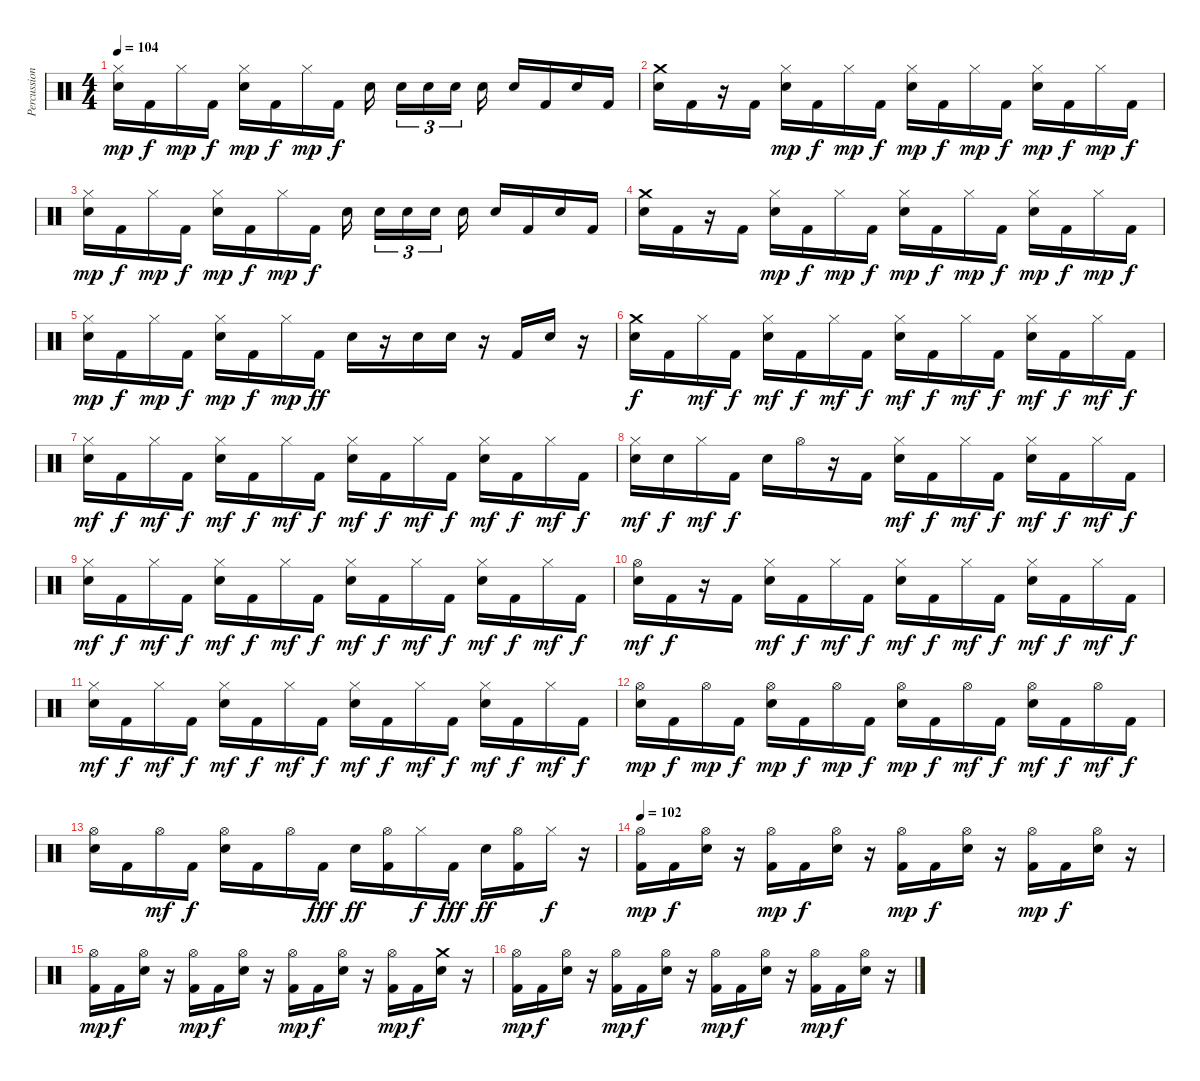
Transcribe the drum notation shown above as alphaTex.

\track ("Percussion" "Percussion") {instrument percussion}
\staff {score}
\articulation defaults
\ts (4 4)
\tempo 104
\clef neutral
\ks c
("Electric Snare (hit)" "Hi-Hat (closed)").16{dy mp} "Kick (hit) 2".16{dy f} "Hi-Hat (closed)".16{dy mp} "Kick (hit) 2".16{dy f} ("Electric Snare (hit)" "Hi-Hat (closed)").16{dy mp} "Kick (hit) 2".16{dy f} "Hi-Hat (closed)".16{dy mp} "Kick (hit) 2".16{dy f} "Electric Snare (hit)".16 "Electric Snare (hit)".16{tu (3 2)} "Electric Snare (hit)".16{tu (3 2)} "Electric Snare (hit)".16{tu (3 2)} "Electric Snare (hit)".16 "Electric Snare (hit)".16 "Kick (hit) 2".16 "Electric Snare (hit)".16 "Kick (hit) 2".16 |
("Electric Snare (hit)" "Crash medium (hit)").16 "Kick (hit) 2".16 r.16 "Kick (hit) 2".16 ("Electric Snare (hit)" "Hi-Hat (closed)").16{dy mp} "Kick (hit) 2".16{dy f} "Hi-Hat (closed)".16{dy mp} "Kick (hit) 2".16{dy f} ("Electric Snare (hit)" "Hi-Hat (closed)").16{dy mp} "Kick (hit) 2".16{dy f} "Hi-Hat (closed)".16{dy mp} "Kick (hit) 2".16{dy f} ("Electric Snare (hit)" "Hi-Hat (closed)").16{dy mp} "Kick (hit) 2".16{dy f} "Hi-Hat (closed)".16{dy mp} "Kick (hit) 2".16{dy f} |
("Electric Snare (hit)" "Hi-Hat (closed)").16{dy mp} "Kick (hit) 2".16{dy f} "Hi-Hat (closed)".16{dy mp} "Kick (hit) 2".16{dy f} ("Electric Snare (hit)" "Hi-Hat (closed)").16{dy mp} "Kick (hit) 2".16{dy f} "Hi-Hat (closed)".16{dy mp} "Kick (hit) 2".16{dy f} "Electric Snare (hit)".16 "Electric Snare (hit)".16{tu (3 2)} "Electric Snare (hit)".16{tu (3 2)} "Electric Snare (hit)".16{tu (3 2)} "Electric Snare (hit)".16 "Electric Snare (hit)".16 "Kick (hit) 2".16 "Electric Snare (hit)".16 "Kick (hit) 2".16 |
("Electric Snare (hit)" "Crash medium (hit)").16 "Kick (hit) 2".16 r.16 "Kick (hit) 2".16 ("Electric Snare (hit)" "Hi-Hat (closed)").16{dy mp} "Kick (hit) 2".16{dy f} "Hi-Hat (closed)".16{dy mp} "Kick (hit) 2".16{dy f} ("Electric Snare (hit)" "Hi-Hat (closed)").16{dy mp} "Kick (hit) 2".16{dy f} "Hi-Hat (closed)".16{dy mp} "Kick (hit) 2".16{dy f} ("Electric Snare (hit)" "Hi-Hat (closed)").16{dy mp} "Kick (hit) 2".16{dy f} "Hi-Hat (closed)".16{dy mp} "Kick (hit) 2".16{dy f} |
("Electric Snare (hit)" "Hi-Hat (closed)").16{dy mp} "Kick (hit) 2".16{dy f} "Hi-Hat (closed)".16{dy mp} "Kick (hit) 2".16{dy f} ("Electric Snare (hit)" "Hi-Hat (closed)").16{dy mp} "Kick (hit) 2".16{dy f} "Hi-Hat (closed)".16{dy mp} "Kick (hit) 2".16{dy ff} "Electric Snare (hit)".16 r.16 "Electric Snare (hit)".16 "Electric Snare (hit)".16 r.16 "Kick (hit) 2".16 "Electric Snare (hit)".16 r.16 |
("Electric Snare (hit)" "Crash medium (hit)").16{dy f} "Kick (hit) 2".16 "Hi-Hat (closed)".16{dy mf} "Kick (hit) 2".16{dy f} ("Electric Snare (hit)" "Hi-Hat (closed)").16{dy mf} "Kick (hit) 2".16{dy f} "Hi-Hat (closed)".16{dy mf} "Kick (hit) 2".16{dy f} ("Electric Snare (hit)" "Hi-Hat (closed)").16{dy mf} "Kick (hit) 2".16{dy f} "Hi-Hat (closed)".16{dy mf} "Kick (hit) 2".16{dy f} ("Electric Snare (hit)" "Hi-Hat (closed)").16{dy mf} "Kick (hit) 2".16{dy f} "Hi-Hat (closed)".16{dy mf} "Kick (hit) 2".16{dy f} |
("Electric Snare (hit)" "Hi-Hat (closed)").16{dy mf} "Kick (hit) 2".16{dy f} "Hi-Hat (closed)".16{dy mf} "Kick (hit) 2".16{dy f} ("Electric Snare (hit)" "Hi-Hat (closed)").16{dy mf} "Kick (hit) 2".16{dy f} "Hi-Hat (closed)".16{dy mf} "Kick (hit) 2".16{dy f} ("Electric Snare (hit)" "Hi-Hat (closed)").16{dy mf} "Kick (hit) 2".16{dy f} "Hi-Hat (closed)".16{dy mf} "Kick (hit) 2".16{dy f} ("Electric Snare (hit)" "Hi-Hat (closed)").16{dy mf} "Kick (hit) 2".16{dy f} "Hi-Hat (closed)".16{dy mf} "Kick (hit) 2".16{dy f} |
("Electric Snare (hit)" "Hi-Hat (closed)").16{dy mf} "Electric Snare (hit)".16{dy f} "Hi-Hat (closed)".16{dy mf} "Kick (hit) 2".16{dy f} "Electric Snare (hit)".16 "Hi-Hat (open)".16 r.16 "Kick (hit) 2".16 ("Electric Snare (hit)" "Hi-Hat (closed)").16{dy mf} "Kick (hit) 2".16{dy f} "Hi-Hat (closed)".16{dy mf} "Kick (hit) 2".16{dy f} ("Electric Snare (hit)" "Hi-Hat (closed)").16{dy mf} "Kick (hit) 2".16{dy f} "Hi-Hat (closed)".16{dy mf} "Kick (hit) 2".16{dy f} |
("Electric Snare (hit)" "Hi-Hat (closed)").16{dy mf} "Kick (hit) 2".16{dy f} "Hi-Hat (closed)".16{dy mf} "Kick (hit) 2".16{dy f} ("Electric Snare (hit)" "Hi-Hat (closed)").16{dy mf} "Kick (hit) 2".16{dy f} "Hi-Hat (closed)".16{dy mf} "Kick (hit) 2".16{dy f} ("Electric Snare (hit)" "Hi-Hat (closed)").16{dy mf} "Kick (hit) 2".16{dy f} "Hi-Hat (closed)".16{dy mf} "Kick (hit) 2".16{dy f} ("Electric Snare (hit)" "Hi-Hat (closed)").16{dy mf} "Kick (hit) 2".16{dy f} "Hi-Hat (closed)".16{dy mf} "Kick (hit) 2".16{dy f} |
("Electric Snare (hit)" "Hi-Hat (open)").16{dy mf} "Kick (hit) 2".16{dy f} r.16 "Kick (hit) 2".16 ("Electric Snare (hit)" "Hi-Hat (closed)").16{dy mf} "Kick (hit) 2".16{dy f} "Hi-Hat (closed)".16{dy mf} "Kick (hit) 2".16{dy f} ("Electric Snare (hit)" "Hi-Hat (closed)").16{dy mf} "Kick (hit) 2".16{dy f} "Hi-Hat (closed)".16{dy mf} "Kick (hit) 2".16{dy f} ("Electric Snare (hit)" "Hi-Hat (closed)").16{dy mf} "Kick (hit) 2".16{dy f} "Hi-Hat (closed)".16{dy mf} "Kick (hit) 2".16{dy f} |
("Electric Snare (hit)" "Hi-Hat (closed)").16{dy mf} "Kick (hit) 2".16{dy f} "Hi-Hat (closed)".16{dy mf} "Kick (hit) 2".16{dy f} ("Electric Snare (hit)" "Hi-Hat (closed)").16{dy mf} "Kick (hit) 2".16{dy f} "Hi-Hat (closed)".16{dy mf} "Kick (hit) 2".16{dy f} ("Electric Snare (hit)" "Hi-Hat (closed)").16{dy mf} "Kick (hit) 2".16{dy f} "Hi-Hat (closed)".16{dy mf} "Kick (hit) 2".16{dy f} ("Electric Snare (hit)" "Hi-Hat (closed)").16{dy mf} "Kick (hit) 2".16{dy f} "Hi-Hat (closed)".16{dy mf} "Kick (hit) 2".16{dy f} |
("Electric Snare (hit)" "Hi-Hat (open)").16{dy mp} "Kick (hit) 2".16{dy f} "Hi-Hat (open)".16{dy mp} "Kick (hit) 2".16{dy f} ("Electric Snare (hit)" "Hi-Hat (open)").16{dy mp} "Kick (hit) 2".16{dy f} "Hi-Hat (open)".16{dy mp} "Kick (hit) 2".16{dy f} ("Electric Snare (hit)" "Hi-Hat (open)").16{dy mp} "Kick (hit) 2".16{dy f} "Hi-Hat (open)".16{dy mf} "Kick (hit) 2".16{dy f} ("Electric Snare (hit)" "Hi-Hat (open)").16{dy mf} "Kick (hit) 2".16{dy f} "Hi-Hat (open)".16{dy mf} "Kick (hit) 2".16{dy f} |
("Electric Snare (hit)" "Hi-Hat (open)").16 "Kick (hit) 2".16 "Hi-Hat (open)".16{dy mf} "Kick (hit) 2".16{dy f} ("Electric Snare (hit)" "Hi-Hat (open)").16 "Kick (hit) 2".16 "Hi-Hat (open)".16 "Kick (hit) 2".16{dy fff} "Electric Snare (hit)".16{dy ff} ("Kick (hit) 2" "Hi-Hat (open)").16 "Hi-Hat (closed)".16{dy f} "Kick (hit) 2".16{dy fff} "Electric Snare (hit)".16{dy ff} ("Kick (hit) 2" "Hi-Hat (open)").16 "Hi-Hat (closed)".16{dy f} r.16 |
\tempo 102
("Kick (hit) 2" "Hi-Hat (open)").16{dy mp} "Kick (hit) 2".16{dy f} ("Electric Snare (hit)" "Hi-Hat (open)").16 r.16 ("Kick (hit) 2" "Hi-Hat (open)").16{dy mp} "Kick (hit) 2".16{dy f} ("Electric Snare (hit)" "Hi-Hat (open)").16 r.16 ("Kick (hit) 2" "Hi-Hat (open)").16{dy mp} "Kick (hit) 2".16{dy f} ("Electric Snare (hit)" "Hi-Hat (open)").16 r.16 ("Kick (hit) 2" "Hi-Hat (open)").16{dy mp} "Kick (hit) 2".16{dy f} ("Electric Snare (hit)" "Hi-Hat (open)").16 r.16 |
("Kick (hit) 2" "Hi-Hat (open)").16{dy mp} "Kick (hit) 2".16{dy f} ("Electric Snare (hit)" "Hi-Hat (open)").16 r.16 ("Kick (hit) 2" "Hi-Hat (open)").16{dy mp} "Kick (hit) 2".16{dy f} ("Electric Snare (hit)" "Hi-Hat (open)").16 r.16 ("Kick (hit) 2" "Hi-Hat (open)").16{dy mp} "Kick (hit) 2".16{dy f} ("Electric Snare (hit)" "Hi-Hat (open)").16 r.16 ("Kick (hit) 2" "Hi-Hat (open)").16{dy mp} "Kick (hit) 2".16{dy f} ("Electric Snare (hit)" "Crash medium (hit)").16 r.16 |
("Kick (hit) 2" "Hi-Hat (open)").16{dy mp} "Kick (hit) 2".16{dy f} ("Electric Snare (hit)" "Hi-Hat (open)").16 r.16 ("Kick (hit) 2" "Hi-Hat (open)").16{dy mp} "Kick (hit) 2".16{dy f} ("Electric Snare (hit)" "Hi-Hat (open)").16 r.16 ("Kick (hit) 2" "Hi-Hat (open)").16{dy mp} "Kick (hit) 2".16{dy f} ("Electric Snare (hit)" "Hi-Hat (open)").16 r.16 ("Kick (hit) 2" "Hi-Hat (open)").16{dy mp} "Kick (hit) 2".16{dy f} ("Electric Snare (hit)" "Hi-Hat (open)").16 r.16
